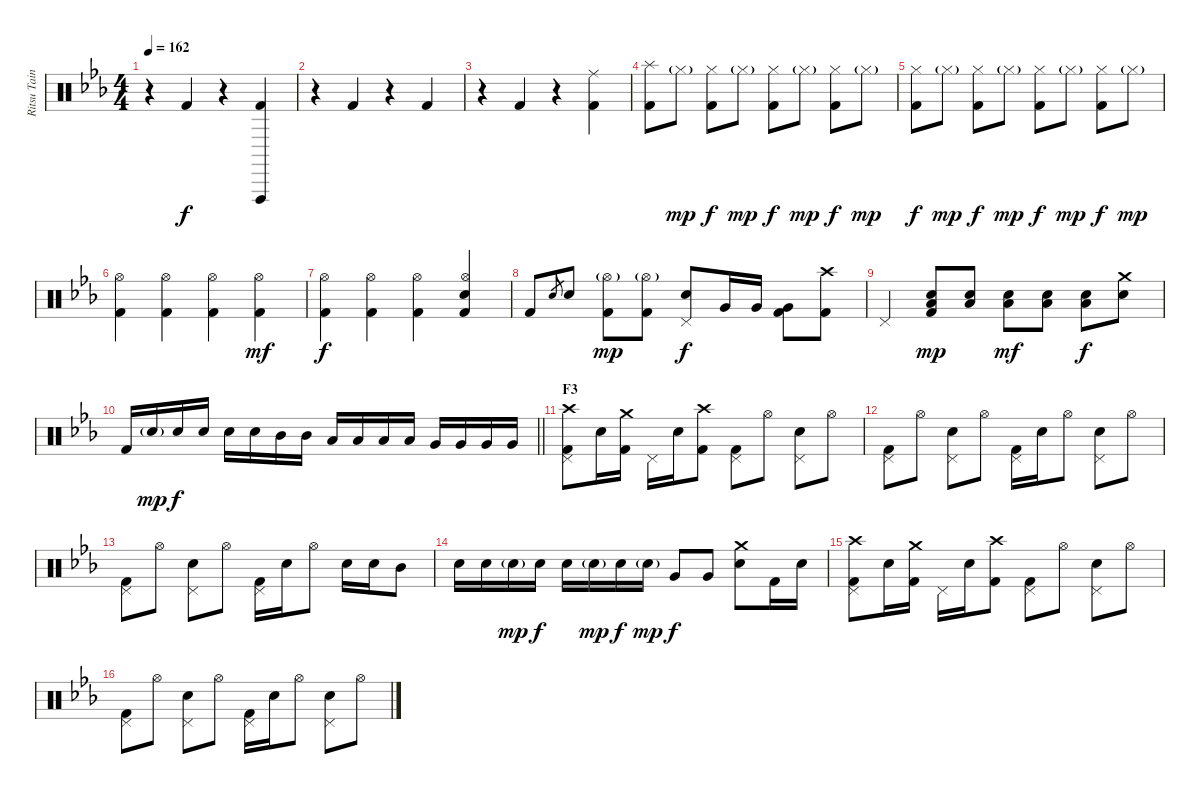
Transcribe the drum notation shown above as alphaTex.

\track ("Ritsu Tainaka" "Ritsu Tain") {instrument percussion}
\staff {score}
\articulation defaults
\ts (4 4)
\tempo 162
\clef neutral
\ks eb
r.4{dy f} "Kick (hit) 2".4 r.4 ("Vibraslap (hit)" "Kick (hit) 2").4 |
r.4 "Kick (hit) 2".4 r.4 "Kick (hit) 2".4 |
r.4 "Kick (hit) 2".4 r.4 ("Ride (middle)" "Kick (hit) 2").4 |
("Splash (hit)" "Kick (hit) 2").8 "Hi-Hat (closed)"{g}.8{dy mp} ("Hi-Hat (closed)" "Kick (hit) 2").8{dy f} "Hi-Hat (closed)"{g}.8{dy mp} ("Hi-Hat (closed)" "Kick (hit) 2").8{dy f} "Hi-Hat (closed)"{g}.8{dy mp} ("Hi-Hat (closed)" "Kick (hit) 2").8{dy f} "Hi-Hat (closed)"{g}.8{dy mp} |
("Hi-Hat (closed)" "Kick (hit) 2").8{dy f} "Hi-Hat (closed)"{g}.8{dy mp} ("Hi-Hat (closed)" "Kick (hit) 2").8{dy f} "Hi-Hat (closed)"{g}.8{dy mp} ("Hi-Hat (closed)" "Kick (hit) 2").8{dy f} "Hi-Hat (closed)"{g}.8{dy mp} ("Hi-Hat (closed)" "Kick (hit) 2").8{dy f} "Hi-Hat (closed)"{g}.8{dy mp} |
("Hi-Hat (open)" "Kick (hit) 2").4 ("Hi-Hat (open)" "Kick (hit) 2").4 ("Hi-Hat (open)" "Kick (hit) 2").4 ("Hi-Hat (open)" "Kick (hit) 2").4{dy mf} |
("Hi-Hat (open)" "Kick (hit) 2").4{dy f} ("Hi-Hat (open)" "Kick (hit) 2").4 ("Hi-Hat (open)" "Kick (hit) 2").4 ("Hi-Hat (open)" "Electric Snare (hit)" "Kick (hit) 2").4 |
"Kick (hit) 2".8 "Electric Snare (hit)".8{gr} "Electric Snare (hit)".8 ("Hi-Hat (open)"{g} "Kick (hit) 2").8{dy mp} ("Hi-Hat (open)"{g} "Kick (hit) 2").8 ("Pedal Hi-Hat (hit)" "Electric Snare (hit)").8{dy f} "Very Low Tom (hit)".16 "Very Low Tom (hit)".16 ("Very Low Tom (hit)" "Kick (hit) 2").8 ("Crash high (hit)" "Kick (hit) 2").8 |
"Pedal Hi-Hat (hit)".4 ("Electric Snare (hit)" "Low Floor Tom (hit)" "Kick (hit) 2").8{dy mp} ("Electric Snare (hit)" "Low Floor Tom (hit)").8 ("Electric Snare (hit)" "Low Floor Tom (hit)").8{dy mf} ("Electric Snare (hit)" "Low Floor Tom (hit)").8 ("Electric Snare (hit)" "Low Floor Tom (hit)").8{dy f} ("Crash medium (hit)" "Electric Snare (hit)").8 |
\barLineRight lightlight "Kick (hit) 2".16 "Electric Snare (hit)"{g}.16{dy mp} "Electric Snare (hit)".16{dy f} "Electric Snare (hit)".16 "Electric Snare (hit)".16 "Electric Snare (hit)".16 "Mid Tom (hit)".16 "Mid Tom (hit)".16 "Low Tom (hit)".16 "Low Tom (hit)".16 "Low Tom (hit)".16 "Low Tom (hit)".16 "Very Low Tom (hit)".16 "Very Low Tom (hit)".16 "Very Low Tom (hit)".16 "Very Low Tom (hit)".16
|
\section ("" "F3")
("Crash high (hit)" "Pedal Hi-Hat (hit)" "Kick (hit) 2").8 "Electric Snare (hit)".16 ("Crash medium (hit)" "Kick (hit) 2").16 "Pedal Hi-Hat (hit)".16 "Electric Snare (hit)".16 ("Crash high (hit)" "Kick (hit) 2").8 ("Pedal Hi-Hat (hit)" "Kick (hit) 2").8 "Hi-Hat (open)".8 ("Pedal Hi-Hat (hit)" "Electric Snare (hit)").8 "Hi-Hat (open)".8 |
("Pedal Hi-Hat (hit)" "Kick (hit) 2").8 "Hi-Hat (open)".8 ("Pedal Hi-Hat (hit)" "Electric Snare (hit)").8 "Hi-Hat (open)".8 ("Pedal Hi-Hat (hit)" "Kick (hit) 2").16 "Electric Snare (hit)".16 "Hi-Hat (open)".8 ("Pedal Hi-Hat (hit)" "Electric Snare (hit)").8 "Hi-Hat (open)".8 |
("Pedal Hi-Hat (hit)" "Kick (hit) 2").8 "Hi-Hat (open)".8 ("Pedal Hi-Hat (hit)" "Electric Snare (hit)").8 "Hi-Hat (open)".8 ("Pedal Hi-Hat (hit)" "Kick (hit) 2").16 "Electric Snare (hit)".16 "Hi-Hat (open)".8 "Electric Snare (hit)".16 "Electric Snare (hit)".16 "Mid Tom (hit)".8 |
"Electric Snare (hit)".16 "Electric Snare (hit)".16 "Electric Snare (hit)"{g}.16{dy mp} "Electric Snare (hit)".16{dy f} "Electric Snare (hit)".16 "Electric Snare (hit)"{g}.16{dy mp} "Electric Snare (hit)".16{dy f} "Electric Snare (hit)"{g}.16{dy mp} "Very Low Tom (hit)".8{dy f} "Very Low Tom (hit)".8 ("Crash medium (hit)" "Electric Snare (hit)").8 "Kick (hit) 2".16 "Electric Snare (hit)".16 |
("Crash high (hit)" "Pedal Hi-Hat (hit)" "Kick (hit) 2").8 "Electric Snare (hit)".16 ("Crash medium (hit)" "Kick (hit) 2").16 "Pedal Hi-Hat (hit)".16 "Electric Snare (hit)".16 ("Crash high (hit)" "Kick (hit) 2").8 ("Pedal Hi-Hat (hit)" "Kick (hit) 2").8 "Hi-Hat (open)".8 ("Pedal Hi-Hat (hit)" "Electric Snare (hit)").8 "Hi-Hat (open)".8 |
("Pedal Hi-Hat (hit)" "Kick (hit) 2").8 "Hi-Hat (open)".8 ("Pedal Hi-Hat (hit)" "Electric Snare (hit)").8 "Hi-Hat (open)".8 ("Pedal Hi-Hat (hit)" "Kick (hit) 2").16 "Electric Snare (hit)".16 "Hi-Hat (open)".8 ("Pedal Hi-Hat (hit)" "Electric Snare (hit)").8 "Hi-Hat (open)".8
